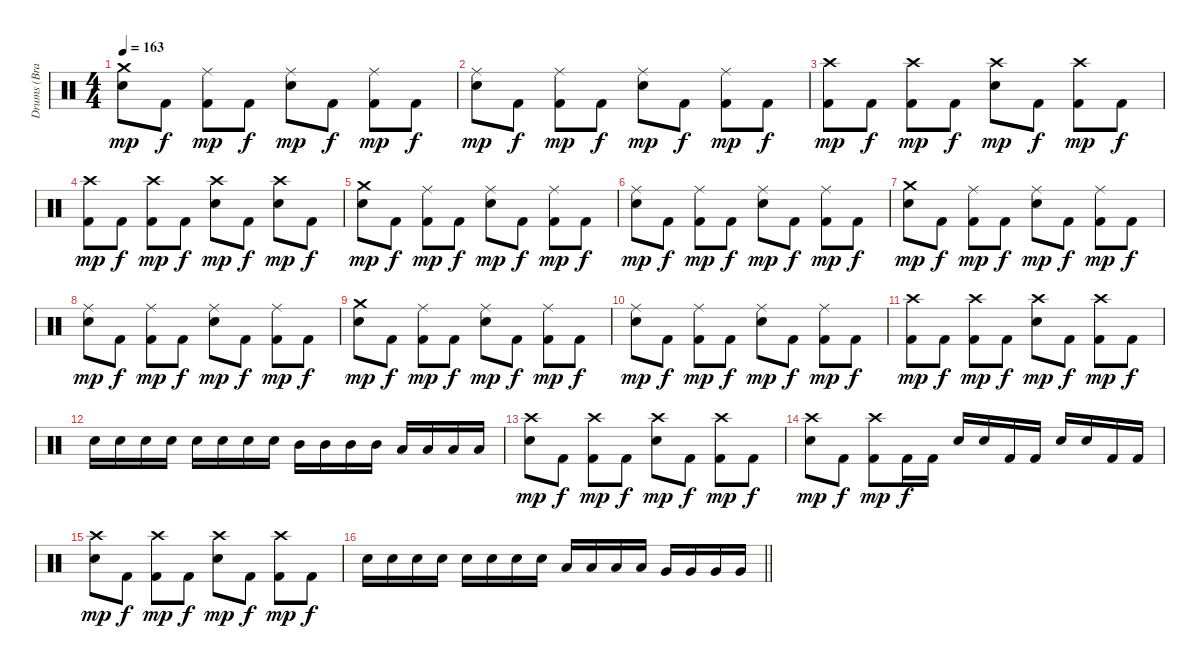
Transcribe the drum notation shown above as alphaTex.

\track ("Drums (Brandon Saller)" "Drums (Bra") {instrument percussion}
\staff {score}
\articulation defaults
\ts (4 4)
\tempo 163
\clef neutral
\ks c
("Crash medium (hit)" "Electric Snare (hit)").8{dy mp} "Kick (hit) 2".8{dy f} ("Ride (middle)" "Kick (hit) 2").8{dy mp} "Kick (hit) 2".8{dy f} ("Ride (middle)" "Electric Snare (hit)").8{dy mp} "Kick (hit) 2".8{dy f} ("Ride (middle)" "Kick (hit) 2").8{dy mp} "Kick (hit) 2".8{dy f} |
("Ride (middle)" "Electric Snare (hit)").8{dy mp} "Kick (hit) 2".8{dy f} ("Ride (middle)" "Kick (hit) 2").8{dy mp} "Kick (hit) 2".8{dy f} ("Ride (middle)" "Electric Snare (hit)").8{dy mp} "Kick (hit) 2".8{dy f} ("Ride (middle)" "Kick (hit) 2").8{dy mp} "Kick (hit) 2".8{dy f} |
("Crash high (hit)" "Kick (hit) 2").8{dy mp} "Kick (hit) 2".8{dy f} ("Crash high (hit)" "Kick (hit) 2").8{dy mp} "Kick (hit) 2".8{dy f} ("Crash high (hit)" "Electric Snare (hit)").8{dy mp} "Kick (hit) 2".8{dy f} ("Crash high (hit)" "Kick (hit) 2").8{dy mp} "Kick (hit) 2".8{dy f} |
("Crash high (hit)" "Kick (hit) 2").8{dy mp} "Kick (hit) 2".8{dy f} ("Crash high (hit)" "Kick (hit) 2").8{dy mp} "Kick (hit) 2".8{dy f} ("Crash high (hit)" "Electric Snare (hit)").8{dy mp} "Kick (hit) 2".8{dy f} ("Crash high (hit)" "Electric Snare (hit)").8{dy mp} "Kick (hit) 2".8{dy f} |
("Crash medium (hit)" "Electric Snare (hit)").8{dy mp} "Kick (hit) 2".8{dy f} ("Ride (middle)" "Kick (hit) 2").8{dy mp} "Kick (hit) 2".8{dy f} ("Ride (middle)" "Electric Snare (hit)").8{dy mp} "Kick (hit) 2".8{dy f} ("Ride (middle)" "Kick (hit) 2").8{dy mp} "Kick (hit) 2".8{dy f} |
("Ride (middle)" "Electric Snare (hit)").8{dy mp} "Kick (hit) 2".8{dy f} ("Ride (middle)" "Kick (hit) 2").8{dy mp} "Kick (hit) 2".8{dy f} ("Ride (middle)" "Electric Snare (hit)").8{dy mp} "Kick (hit) 2".8{dy f} ("Ride (middle)" "Kick (hit) 2").8{dy mp} "Kick (hit) 2".8{dy f} |
("Crash medium (hit)" "Electric Snare (hit)").8{dy mp} "Kick (hit) 2".8{dy f} ("Ride (middle)" "Kick (hit) 2").8{dy mp} "Kick (hit) 2".8{dy f} ("Ride (middle)" "Electric Snare (hit)").8{dy mp} "Kick (hit) 2".8{dy f} ("Ride (middle)" "Kick (hit) 2").8{dy mp} "Kick (hit) 2".8{dy f} |
("Ride (middle)" "Electric Snare (hit)").8{dy mp} "Kick (hit) 2".8{dy f} ("Ride (middle)" "Kick (hit) 2").8{dy mp} "Kick (hit) 2".8{dy f} ("Ride (middle)" "Electric Snare (hit)").8{dy mp} "Kick (hit) 2".8{dy f} ("Ride (middle)" "Kick (hit) 2").8{dy mp} "Kick (hit) 2".8{dy f} |
("Crash medium (hit)" "Electric Snare (hit)").8{dy mp} "Kick (hit) 2".8{dy f} ("Ride (middle)" "Kick (hit) 2").8{dy mp} "Kick (hit) 2".8{dy f} ("Ride (middle)" "Electric Snare (hit)").8{dy mp} "Kick (hit) 2".8{dy f} ("Ride (middle)" "Kick (hit) 2").8{dy mp} "Kick (hit) 2".8{dy f} |
("Ride (middle)" "Electric Snare (hit)").8{dy mp} "Kick (hit) 2".8{dy f} ("Ride (middle)" "Kick (hit) 2").8{dy mp} "Kick (hit) 2".8{dy f} ("Ride (middle)" "Electric Snare (hit)").8{dy mp} "Kick (hit) 2".8{dy f} ("Ride (middle)" "Kick (hit) 2").8{dy mp} "Kick (hit) 2".8{dy f} |
("Crash high (hit)" "Kick (hit) 2").8{dy mp} "Kick (hit) 2".8{dy f} ("Crash high (hit)" "Kick (hit) 2").8{dy mp} "Kick (hit) 2".8{dy f} ("Crash high (hit)" "Electric Snare (hit)").8{dy mp} "Kick (hit) 2".8{dy f} ("Crash high (hit)" "Kick (hit) 2").8{dy mp} "Kick (hit) 2".8{dy f} |
"Electric Snare (hit)".16 "Electric Snare (hit)".16 "Electric Snare (hit)".16 "Electric Snare (hit)".16 "Electric Snare (hit)".16 "Electric Snare (hit)".16 "Electric Snare (hit)".16 "Electric Snare (hit)".16 "Mid Tom (hit)".16 "Mid Tom (hit)".16 "Mid Tom (hit)".16 "Mid Tom (hit)".16 "Low Tom (hit)".16 "Low Tom (hit)".16 "Low Tom (hit)".16 "Low Tom (hit)".16 |
("Crash high (hit)" "Electric Snare (hit)").8{dy mp} "Kick (hit) 2".8{dy f} ("Crash high (hit)" "Kick (hit) 2").8{dy mp} "Kick (hit) 2".8{dy f} ("Crash high (hit)" "Electric Snare (hit)").8{dy mp} "Kick (hit) 2".8{dy f} ("Crash high (hit)" "Kick (hit) 2").8{dy mp} "Kick (hit) 2".8{dy f} |
("Crash high (hit)" "Electric Snare (hit)").8{dy mp} "Kick (hit) 2".8{dy f} ("Crash high (hit)" "Kick (hit) 2").8{dy mp} "Kick (hit) 2".16{dy f} "Kick (hit) 2".16 "Electric Snare (hit)".16 "Electric Snare (hit)".16 "Kick (hit) 2".16 "Kick (hit) 2".16 "Electric Snare (hit)".16 "Electric Snare (hit)".16 "Kick (hit) 2".16 "Kick (hit) 2".16 |
("Crash high (hit)" "Electric Snare (hit)").8{dy mp} "Kick (hit) 2".8{dy f} ("Crash high (hit)" "Kick (hit) 2").8{dy mp} "Kick (hit) 2".8{dy f} ("Crash high (hit)" "Electric Snare (hit)").8{dy mp} "Kick (hit) 2".8{dy f} ("Crash high (hit)" "Kick (hit) 2").8{dy mp} "Kick (hit) 2".8{dy f} |
\barLineRight lightlight "Electric Snare (hit)".16 "Electric Snare (hit)".16 "Electric Snare (hit)".16 "Electric Snare (hit)".16 "Electric Snare (hit)".16 "Electric Snare (hit)".16 "Electric Snare (hit)".16 "Electric Snare (hit)".16 "Low Tom (hit)".16 "Low Tom (hit)".16 "Low Tom (hit)".16 "Low Tom (hit)".16 "Very Low Tom (hit)".16 "Very Low Tom (hit)".16 "Very Low Tom (hit)".16 "Very Low Tom (hit)".16
